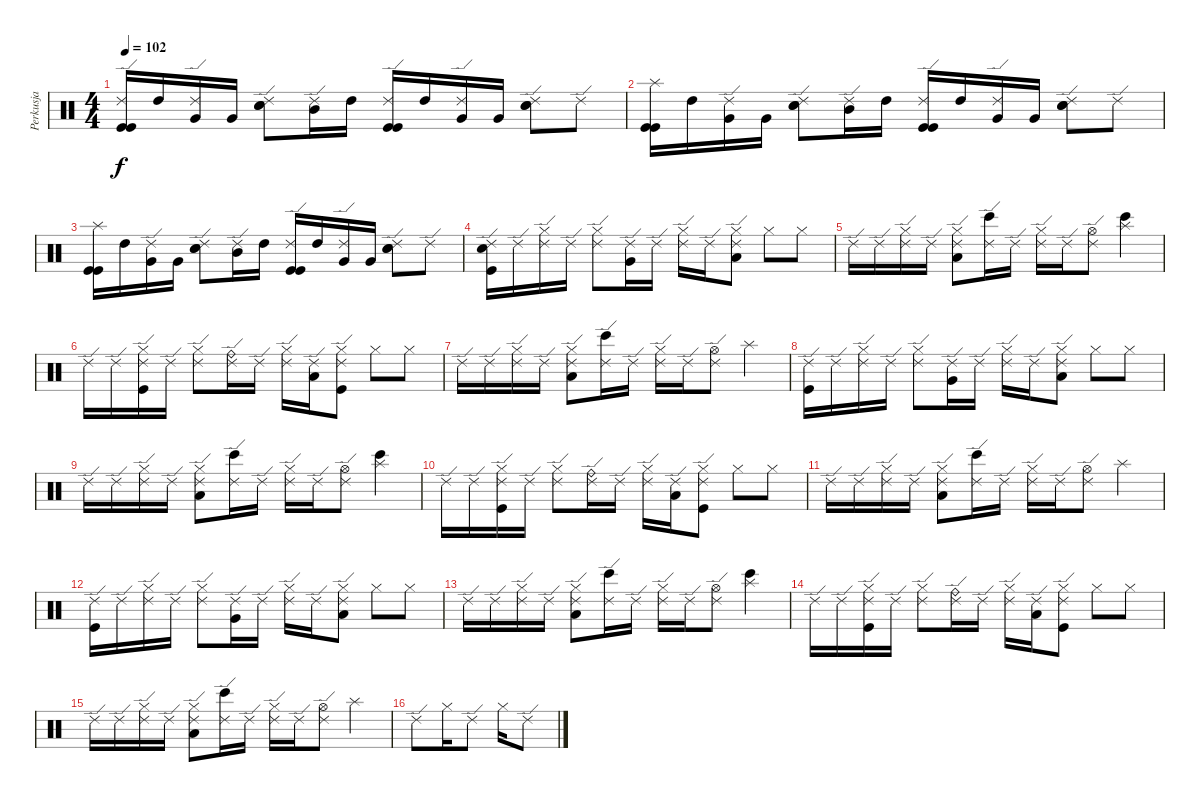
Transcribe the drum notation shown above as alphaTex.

\track ("Perkusja" "Perkusja") {instrument percussion}
\staff {score}
\articulation defaults
\ts (4 4)
\tempo 102
\clef neutral
\ks c
("Kick (hit)" "Kick (hit)" "Ride (edge) 2").16{dy f} "High Tom (hit)".16 ("Very Low Tom (hit)" "Ride (edge) 2").16 "Very Low Tom (hit)".16 ("Electric Snare (hit)" "Electric Snare (hit)" "Ride (edge) 2").8 ("Mid Tom (hit)" "Ride (edge) 2").16 "High Tom (hit)".16 ("Kick (hit)" "Kick (hit)" "Ride (edge) 2").16 "High Tom (hit)".16 ("Very Low Tom (hit)" "Ride (edge) 2").16 "Very Low Tom (hit)".16 ("Electric Snare (hit)" "Electric Snare (hit)" "Ride (edge) 2").8 "Ride (edge) 2".8 |
("Kick (hit)" "Kick (hit)" "Splash (hit)").16 "High Tom (hit)".16 ("Very Low Tom (hit)" "Ride (edge) 2").16 "Very Low Tom (hit)".16 ("Electric Snare (hit)" "Electric Snare (hit)" "Ride (edge) 2").8 ("Mid Tom (hit)" "Ride (edge) 2").16 "High Tom (hit)".16 ("Kick (hit)" "Kick (hit)" "Ride (edge) 2").16 "High Tom (hit)".16 ("Very Low Tom (hit)" "Ride (edge) 2").16 "Very Low Tom (hit)".16 ("Electric Snare (hit)" "Electric Snare (hit)" "Ride (edge) 2").8 "Ride (edge) 2".8 |
("Kick (hit)" "Kick (hit)" "Splash (hit)").16 "High Tom (hit)".16 ("Very Low Tom (hit)" "Ride (edge) 2").16 "Very Low Tom (hit)".16 ("Electric Snare (hit)" "Electric Snare (hit)" "Ride (edge) 2").8 ("Mid Tom (hit)" "Ride (edge) 2").16 "High Tom (hit)".16 ("Kick (hit)" "Kick (hit)" "Ride (edge) 2").16 "High Tom (hit)".16 ("Very Low Tom (hit)" "Ride (edge) 2").16 "Very Low Tom (hit)".16 ("Electric Snare (hit)" "Electric Snare (hit)" "Ride (edge) 2").8 "Ride (edge) 2".8 |
("Kick (hit)" "Electric Snare (hit)" "Ride (edge) 2").16 "Ride (edge) 2".16 ("Ride (edge) 2" "Hi-Hat (closed)").16 "Ride (edge) 2".16 ("Ride (edge) 2" "Hi-Hat (closed)").8 ("Very Low Tom (hit)" "Ride (edge) 2").16 "Ride (edge) 2".16 ("Ride (edge) 2" "Hi-Hat (closed)").16 "Ride (edge) 2".16 ("Low Tom (hit)" "Ride (edge) 2" "Hi-Hat (closed)").8 "Hi-Hat (closed)".8 "Hi-Hat (closed)".8 |
"Ride (edge) 2".16 "Ride (edge) 2".16 ("Ride (edge) 2" "Hi-Hat (closed)").16 "Ride (edge) 2".16 ("Low Floor Tom (hit)" "Ride (edge) 2" "Hi-Hat (closed)").8 ("Bongo High (hit)" "Ride (edge) 2").16 "Ride (edge) 2".16 ("Ride (edge) 2" "Hi-Hat (closed)").16 "Ride (edge) 2".16 ("Ride (edge) 2" "Hi-Hat (open)").8 ("Bongo High (hit)" "Splash (hit)").4 |
"Ride (edge) 2".16 "Ride (edge) 2".16 ("Kick (hit)" "Ride (edge) 2" "Hi-Hat (closed)").16 "Ride (edge) 2".16 ("Ride (edge) 2" "Hi-Hat (closed)").8 ("Ride (bell)" "Ride (edge) 2").16 "Ride (edge) 2".16 ("Ride (edge) 2" "Hi-Hat (closed)").16 ("Low Tom (hit)" "Ride (edge) 2").16 ("Kick (hit)" "Ride (edge) 2" "Hi-Hat (closed)").8 "Hi-Hat (closed)".8 "Hi-Hat (closed)".8 |
"Ride (edge) 2".16 "Ride (edge) 2".16 ("Ride (edge) 2" "Hi-Hat (closed)").16 "Ride (edge) 2".16 ("Low Floor Tom (hit)" "Ride (edge) 2" "Hi-Hat (closed)").8 ("Bongo High (hit)" "Ride (edge) 2").16 "Ride (edge) 2".16 ("Ride (edge) 2" "Hi-Hat (closed)").16 "Ride (edge) 2".16 ("Ride (edge) 2" "Hi-Hat (open)").8 "Splash (hit)".4 |
("Kick (hit)" "Ride (edge) 2").16 "Ride (edge) 2".16 ("Ride (edge) 2" "Hi-Hat (closed)").16 "Ride (edge) 2".16 ("Ride (edge) 2" "Hi-Hat (closed)").8 ("Very Low Tom (hit)" "Ride (edge) 2").16 "Ride (edge) 2".16 ("Ride (edge) 2" "Hi-Hat (closed)").16 "Ride (edge) 2".16 ("Low Tom (hit)" "Ride (edge) 2" "Hi-Hat (closed)").8 "Hi-Hat (closed)".8 "Hi-Hat (closed)".8 |
"Ride (edge) 2".16 "Ride (edge) 2".16 ("Ride (edge) 2" "Hi-Hat (closed)").16 "Ride (edge) 2".16 ("Low Floor Tom (hit)" "Ride (edge) 2" "Hi-Hat (closed)").8 ("Bongo High (hit)" "Ride (edge) 2").16 "Ride (edge) 2".16 ("Ride (edge) 2" "Hi-Hat (closed)").16 "Ride (edge) 2".16 ("Ride (edge) 2" "Hi-Hat (open)").8 ("Bongo High (hit)" "Splash (hit)").4 |
"Ride (edge) 2".16 "Ride (edge) 2".16 ("Kick (hit)" "Ride (edge) 2" "Hi-Hat (closed)").16 "Ride (edge) 2".16 ("Ride (edge) 2" "Hi-Hat (closed)").8 ("Ride (bell)" "Ride (edge) 2").16 "Ride (edge) 2".16 ("Ride (edge) 2" "Hi-Hat (closed)").16 ("Low Tom (hit)" "Ride (edge) 2").16 ("Kick (hit)" "Ride (edge) 2" "Hi-Hat (closed)").8 "Hi-Hat (closed)".8 "Hi-Hat (closed)".8 |
"Ride (edge) 2".16 "Ride (edge) 2".16 ("Ride (edge) 2" "Hi-Hat (closed)").16 "Ride (edge) 2".16 ("Low Floor Tom (hit)" "Ride (edge) 2" "Hi-Hat (closed)").8 ("Bongo High (hit)" "Ride (edge) 2").16 "Ride (edge) 2".16 ("Ride (edge) 2" "Hi-Hat (closed)").16 "Ride (edge) 2".16 ("Ride (edge) 2" "Hi-Hat (open)").8 "Splash (hit)".4 |
("Kick (hit)" "Ride (edge) 2").16 "Ride (edge) 2".16 ("Ride (edge) 2" "Hi-Hat (closed)").16 "Ride (edge) 2".16 ("Ride (edge) 2" "Hi-Hat (closed)").8 ("Very Low Tom (hit)" "Ride (edge) 2").16 "Ride (edge) 2".16 ("Ride (edge) 2" "Hi-Hat (closed)").16 "Ride (edge) 2".16 ("Low Tom (hit)" "Ride (edge) 2" "Hi-Hat (closed)").8 "Hi-Hat (closed)".8 "Hi-Hat (closed)".8 |
"Ride (edge) 2".16 "Ride (edge) 2".16 ("Ride (edge) 2" "Hi-Hat (closed)").16 "Ride (edge) 2".16 ("Low Floor Tom (hit)" "Ride (edge) 2" "Hi-Hat (closed)").8 ("Bongo High (hit)" "Ride (edge) 2").16 "Ride (edge) 2".16 ("Ride (edge) 2" "Hi-Hat (closed)").16 "Ride (edge) 2".16 ("Ride (edge) 2" "Hi-Hat (open)").8 ("Bongo High (hit)" "Splash (hit)").4 |
"Ride (edge) 2".16 "Ride (edge) 2".16 ("Kick (hit)" "Ride (edge) 2" "Hi-Hat (closed)").16 "Ride (edge) 2".16 ("Ride (edge) 2" "Hi-Hat (closed)").8 ("Ride (bell)" "Ride (edge) 2").16 "Ride (edge) 2".16 ("Ride (edge) 2" "Hi-Hat (closed)").16 ("Low Tom (hit)" "Ride (edge) 2").16 ("Kick (hit)" "Ride (edge) 2" "Hi-Hat (closed)").8 "Hi-Hat (closed)".8 "Hi-Hat (closed)".8 |
"Ride (edge) 2".16 "Ride (edge) 2".16 ("Ride (edge) 2" "Hi-Hat (closed)").16 "Ride (edge) 2".16 ("Low Floor Tom (hit)" "Ride (edge) 2" "Hi-Hat (closed)").8 ("Bongo High (hit)" "Ride (edge) 2").16 "Ride (edge) 2".16 ("Ride (edge) 2" "Hi-Hat (closed)").16 "Ride (edge) 2".16 ("Ride (edge) 2" "Hi-Hat (open)").8 "Splash (hit)".4 |
"Ride (edge) 2".8 "Hi-Hat (closed)".16 "Ride (edge) 2".8 "Hi-Hat (closed)".16 "Ride (edge) 2".8
